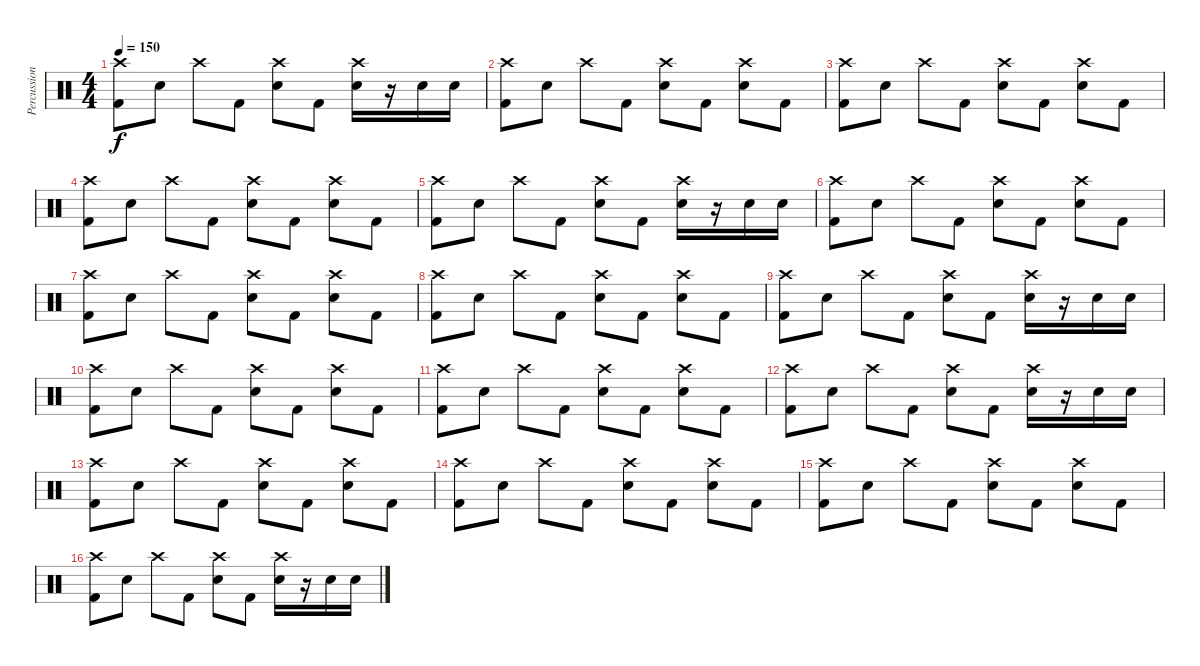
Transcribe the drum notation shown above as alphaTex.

\track ("Percussion" "Percussion") {instrument percussion}
\staff {score}
\articulation defaults
\ts (4 4)
\tempo 150
\clef neutral
\ks c
("Crash high (hit)" "Kick (hit) 2").8{dy f} "Snare (hit) 2".8 "Crash high (hit)".8 "Kick (hit) 2".8 ("Crash high (hit)" "Snare (hit) 2").8 "Kick (hit) 2".8 ("Crash high (hit)" "Snare (hit) 2").16 r.16 "Snare (hit) 2".16 "Snare (hit) 2".16 |
("Crash high (hit)" "Kick (hit) 2").8 "Snare (hit) 2".8 "Crash high (hit)".8 "Kick (hit) 2".8 ("Crash high (hit)" "Snare (hit) 2").8 "Kick (hit) 2".8 ("Crash high (hit)" "Snare (hit) 2").8 "Kick (hit) 2".8 |
("Crash high (hit)" "Kick (hit) 2").8 "Snare (hit) 2".8 "Crash high (hit)".8 "Kick (hit) 2".8 ("Crash high (hit)" "Snare (hit) 2").8 "Kick (hit) 2".8 ("Crash high (hit)" "Snare (hit) 2").8 "Kick (hit) 2".8 |
("Crash high (hit)" "Kick (hit) 2").8 "Snare (hit) 2".8 "Crash high (hit)".8 "Kick (hit) 2".8 ("Crash high (hit)" "Snare (hit) 2").8 "Kick (hit) 2".8 ("Crash high (hit)" "Snare (hit) 2").8 "Kick (hit) 2".8 |
("Crash high (hit)" "Kick (hit) 2").8 "Snare (hit) 2".8 "Crash high (hit)".8 "Kick (hit) 2".8 ("Crash high (hit)" "Snare (hit) 2").8 "Kick (hit) 2".8 ("Crash high (hit)" "Snare (hit) 2").16 r.16 "Snare (hit) 2".16 "Snare (hit) 2".16 |
("Crash high (hit)" "Kick (hit) 2").8 "Snare (hit) 2".8 "Crash high (hit)".8 "Kick (hit) 2".8 ("Crash high (hit)" "Snare (hit) 2").8 "Kick (hit) 2".8 ("Crash high (hit)" "Snare (hit) 2").8 "Kick (hit) 2".8 |
("Crash high (hit)" "Kick (hit) 2").8 "Snare (hit) 2".8 "Crash high (hit)".8 "Kick (hit) 2".8 ("Crash high (hit)" "Snare (hit) 2").8 "Kick (hit) 2".8 ("Crash high (hit)" "Snare (hit) 2").8 "Kick (hit) 2".8 |
("Crash high (hit)" "Kick (hit) 2").8 "Snare (hit) 2".8 "Crash high (hit)".8 "Kick (hit) 2".8 ("Crash high (hit)" "Snare (hit) 2").8 "Kick (hit) 2".8 ("Crash high (hit)" "Snare (hit) 2").8 "Kick (hit) 2".8 |
("Crash high (hit)" "Kick (hit) 2").8 "Snare (hit) 2".8 "Crash high (hit)".8 "Kick (hit) 2".8 ("Crash high (hit)" "Snare (hit) 2").8 "Kick (hit) 2".8 ("Crash high (hit)" "Snare (hit) 2").16 r.16 "Snare (hit) 2".16 "Snare (hit) 2".16 |
("Crash high (hit)" "Kick (hit) 2").8 "Snare (hit) 2".8 "Crash high (hit)".8 "Kick (hit) 2".8 ("Crash high (hit)" "Snare (hit) 2").8 "Kick (hit) 2".8 ("Crash high (hit)" "Snare (hit) 2").8 "Kick (hit) 2".8 |
("Crash high (hit)" "Kick (hit) 2").8 "Snare (hit) 2".8 "Crash high (hit)".8 "Kick (hit) 2".8 ("Crash high (hit)" "Snare (hit) 2").8 "Kick (hit) 2".8 ("Crash high (hit)" "Snare (hit) 2").8 "Kick (hit) 2".8 |
("Crash high (hit)" "Kick (hit) 2").8 "Snare (hit) 2".8 "Crash high (hit)".8 "Kick (hit) 2".8 ("Crash high (hit)" "Snare (hit) 2").8 "Kick (hit) 2".8 ("Crash high (hit)" "Snare (hit) 2").16 r.16 "Snare (hit) 2".16 "Snare (hit) 2".16 |
("Crash high (hit)" "Kick (hit) 2").8 "Snare (hit) 2".8 "Crash high (hit)".8 "Kick (hit) 2".8 ("Crash high (hit)" "Snare (hit) 2").8 "Kick (hit) 2".8 ("Crash high (hit)" "Snare (hit) 2").8 "Kick (hit) 2".8 |
("Crash high (hit)" "Kick (hit) 2").8 "Snare (hit) 2".8 "Crash high (hit)".8 "Kick (hit) 2".8 ("Crash high (hit)" "Snare (hit) 2").8 "Kick (hit) 2".8 ("Crash high (hit)" "Snare (hit) 2").8 "Kick (hit) 2".8 |
("Crash high (hit)" "Kick (hit) 2").8 "Snare (hit) 2".8 "Crash high (hit)".8 "Kick (hit) 2".8 ("Crash high (hit)" "Snare (hit) 2").8 "Kick (hit) 2".8 ("Crash high (hit)" "Snare (hit) 2").8 "Kick (hit) 2".8 |
("Crash high (hit)" "Kick (hit) 2").8 "Snare (hit) 2".8 "Crash high (hit)".8 "Kick (hit) 2".8 ("Crash high (hit)" "Snare (hit) 2").8 "Kick (hit) 2".8 ("Crash high (hit)" "Snare (hit) 2").16 r.16 "Snare (hit) 2".16 "Snare (hit) 2".16
